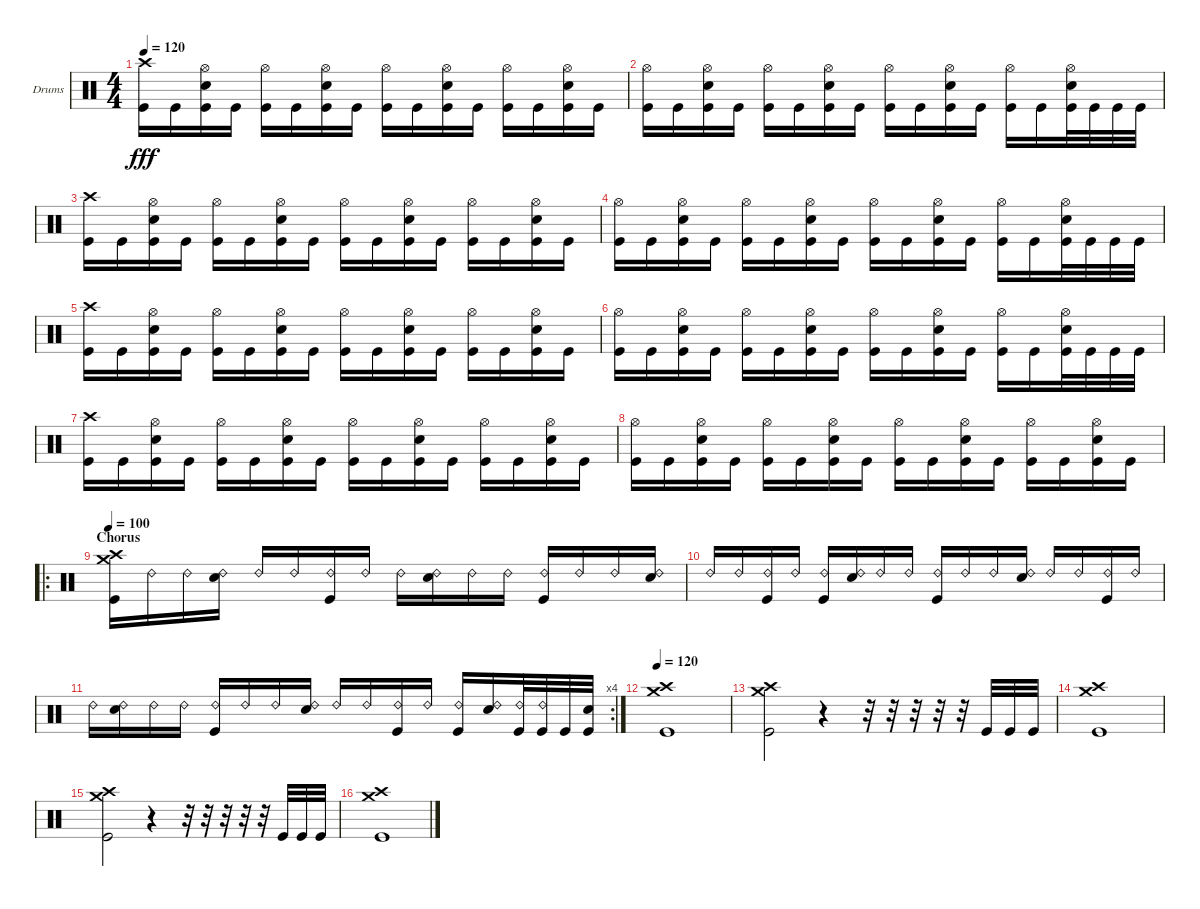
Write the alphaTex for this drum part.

\defaultSystemsLayout 4
\bracketExtendMode groupsimilarinstruments
\firstSystemTrackNameOrientation horizontal
\otherSystemsTrackNameOrientation horizontal
\track ("Jon Larsen" "Drums") {instrument percussion}
\staff {score}
\articulation defaults
\ts (4 4)
\tempo 120
\clef neutral
\scale
0.333333
\ks c
("Kick (hit)" "Crash high (hit)").16{dy fff} "Kick (hit)".16 ("Kick (hit)" "Hi-Hat (open)" "Snare (hit) 2").16 "Kick (hit)".16 ("Kick (hit)" "Hi-Hat (open)").16 "Kick (hit)".16 ("Kick (hit)" "Hi-Hat (open)" "Snare (hit) 2").16 "Kick (hit)".16 ("Kick (hit)" "Hi-Hat (open)").16 "Kick (hit)".16 ("Kick (hit)" "Hi-Hat (open)" "Snare (hit) 2").16 "Kick (hit)".16 ("Kick (hit)" "Hi-Hat (open)").16 "Kick (hit)".16 ("Kick (hit)" "Hi-Hat (open)" "Snare (hit) 2").16 "Kick (hit)".16 |
\scale
0.333333 ("Kick (hit)" "Hi-Hat (open)").16 "Kick (hit)".16 ("Kick (hit)" "Snare (hit) 2" "Hi-Hat (open)").16 "Kick (hit)".16 ("Kick (hit)" "Hi-Hat (open)").16 "Kick (hit)".16 ("Kick (hit)" "Snare (hit) 2" "Hi-Hat (open)").16 "Kick (hit)".16 ("Kick (hit)" "Hi-Hat (open)").16 "Kick (hit)".16 ("Kick (hit)" "Snare (hit) 2" "Hi-Hat (open)").16 "Kick (hit)".16 ("Kick (hit)" "Hi-Hat (open)").16 "Kick (hit)".16 ("Kick (hit)" "Snare (hit) 2" "Hi-Hat (open)").32 "Kick (hit)".32 "Kick (hit)".32 "Kick (hit)".32 |
\scale
0.333333 ("Kick (hit)" "Crash high (hit)").16 "Kick (hit)".16 ("Kick (hit)" "Hi-Hat (open)" "Snare (hit) 2").16 "Kick (hit)".16 ("Kick (hit)" "Hi-Hat (open)").16 "Kick (hit)".16 ("Kick (hit)" "Hi-Hat (open)" "Snare (hit) 2").16 "Kick (hit)".16 ("Kick (hit)" "Hi-Hat (open)").16 "Kick (hit)".16 ("Kick (hit)" "Hi-Hat (open)" "Snare (hit) 2").16 "Kick (hit)".16 ("Kick (hit)" "Hi-Hat (open)").16 "Kick (hit)".16 ("Kick (hit)" "Hi-Hat (open)" "Snare (hit) 2").16 "Kick (hit)".16 |
\scale
0.333333 ("Kick (hit)" "Hi-Hat (open)").16 "Kick (hit)".16 ("Kick (hit)" "Snare (hit) 2" "Hi-Hat (open)").16 "Kick (hit)".16 ("Kick (hit)" "Hi-Hat (open)").16 "Kick (hit)".16 ("Kick (hit)" "Snare (hit) 2" "Hi-Hat (open)").16 "Kick (hit)".16 ("Kick (hit)" "Hi-Hat (open)").16 "Kick (hit)".16 ("Kick (hit)" "Snare (hit) 2" "Hi-Hat (open)").16 "Kick (hit)".16 ("Kick (hit)" "Hi-Hat (open)").16 "Kick (hit)".16 ("Kick (hit)" "Snare (hit) 2" "Hi-Hat (open)").32 "Kick (hit)".32 "Kick (hit)".32 "Kick (hit)".32 |
\scale
0.333333 ("Kick (hit)" "Crash high (hit)").16 "Kick (hit)".16 ("Kick (hit)" "Hi-Hat (open)" "Snare (hit) 2").16 "Kick (hit)".16 ("Kick (hit)" "Hi-Hat (open)").16 "Kick (hit)".16 ("Kick (hit)" "Hi-Hat (open)" "Snare (hit) 2").16 "Kick (hit)".16 ("Kick (hit)" "Hi-Hat (open)").16 "Kick (hit)".16 ("Kick (hit)" "Hi-Hat (open)" "Snare (hit) 2").16 "Kick (hit)".16 ("Kick (hit)" "Hi-Hat (open)").16 "Kick (hit)".16 ("Kick (hit)" "Hi-Hat (open)" "Snare (hit) 2").16 "Kick (hit)".16 |
\scale
0.333333 ("Kick (hit)" "Hi-Hat (open)").16 "Kick (hit)".16 ("Kick (hit)" "Snare (hit) 2" "Hi-Hat (open)").16 "Kick (hit)".16 ("Kick (hit)" "Hi-Hat (open)").16 "Kick (hit)".16 ("Kick (hit)" "Snare (hit) 2" "Hi-Hat (open)").16 "Kick (hit)".16 ("Kick (hit)" "Hi-Hat (open)").16 "Kick (hit)".16 ("Kick (hit)" "Snare (hit) 2" "Hi-Hat (open)").16 "Kick (hit)".16 ("Kick (hit)" "Hi-Hat (open)").16 "Kick (hit)".16 ("Kick (hit)" "Snare (hit) 2" "Hi-Hat (open)").32 "Kick (hit)".32 "Kick (hit)".32 "Kick (hit)".32 |
\scale
0.333333 ("Kick (hit)" "Crash high (hit)").16 "Kick (hit)".16 ("Kick (hit)" "Hi-Hat (open)" "Snare (hit) 2").16 "Kick (hit)".16 ("Kick (hit)" "Hi-Hat (open)").16 "Kick (hit)".16 ("Kick (hit)" "Hi-Hat (open)" "Snare (hit) 2").16 "Kick (hit)".16 ("Kick (hit)" "Hi-Hat (open)").16 "Kick (hit)".16 ("Kick (hit)" "Hi-Hat (open)" "Snare (hit) 2").16 "Kick (hit)".16 ("Kick (hit)" "Hi-Hat (open)").16 "Kick (hit)".16 ("Kick (hit)" "Hi-Hat (open)" "Snare (hit) 2").16 "Kick (hit)".16 |
\scale
0.333333 ("Kick (hit)" "Hi-Hat (open)").16 "Kick (hit)".16 ("Kick (hit)" "Snare (hit) 2" "Hi-Hat (open)").16 "Kick (hit)".16 ("Kick (hit)" "Hi-Hat (open)").16 "Kick (hit)".16 ("Kick (hit)" "Snare (hit) 2" "Hi-Hat (open)").16 "Kick (hit)".16 ("Kick (hit)" "Hi-Hat (open)").16 "Kick (hit)".16 ("Kick (hit)" "Snare (hit) 2" "Hi-Hat (open)").16 "Kick (hit)".16 ("Kick (hit)" "Hi-Hat (open)").16 "Kick (hit)".16 ("Kick (hit)" "Snare (hit) 2" "Hi-Hat (open)").16 "Kick (hit)".16 |
\ro
\section ("" "Chorus")
\tempo 100
\scale
0.365591 ("Crash medium (hit)" "Crash high (hit)" "Kick (hit)").16 "Ride (bell) 2".16 "Ride (bell) 2".16 ("Ride (bell) 2" "Snare (hit) 2").16 "Ride (bell) 2".16 "Ride (bell) 2".16 ("Ride (bell) 2" "Kick (hit)").16 "Ride (bell) 2".16 "Ride (bell) 2".16 ("Ride (bell) 2" "Snare (hit) 2").16 "Ride (bell) 2".16 "Ride (bell) 2".16 ("Ride (bell) 2" "Kick (hit)").16 "Ride (bell) 2".16 "Ride (bell) 2".16 ("Ride (bell) 2" "Snare (hit) 2").16 |
\scale
0.301075 "Ride (bell) 2".16 "Ride (bell) 2".16 ("Ride (bell) 2" "Kick (hit)").16 "Ride (bell) 2".16 ("Ride (bell) 2" "Kick (hit)").16 ("Ride (bell) 2" "Snare (hit) 2").16 "Ride (bell) 2".16 "Ride (bell) 2".16 ("Ride (bell) 2" "Kick (hit)").16 "Ride (bell) 2".16 "Ride (bell) 2".16 ("Ride (bell) 2" "Snare (hit) 2").16 "Ride (bell) 2".16 "Ride (bell) 2".16 ("Ride (bell) 2" "Kick (hit)").16 "Ride (bell) 2".16 |
\rc 4
\scale
0.333333 "Ride (bell) 2".16 ("Ride (bell) 2" "Snare (hit) 2").16 "Ride (bell) 2".16 "Ride (bell) 2".16 ("Ride (bell) 2" "Kick (hit)").16 "Ride (bell) 2".16 "Ride (bell) 2".16 ("Ride (bell) 2" "Snare (hit) 2").16 "Ride (bell) 2".16 "Ride (bell) 2".16 ("Ride (bell) 2" "Kick (hit)").16 "Ride (bell) 2".16 ("Ride (bell) 2" "Kick (hit)").16 ("Ride (bell) 2" "Snare (hit) 2").16 ("Ride (bell) 2" "Kick (hit)").32 ("Ride (bell) 2" "Kick (hit)").32 "Kick (hit)".32 ("Kick (hit)" "Snare (hit) 2").32 |
\tempo 120
\scale
0.333333 ("Kick (hit)" "Crash medium (hit)" "Crash high (hit)").1 |
\scale
0.333333 ("Kick (hit)" "Crash medium (hit)" "Crash high (hit)").2 r.4 r.32 r.32 r.32 r.32 r.32 "Kick (hit)".32 "Kick (hit)".32 "Kick (hit)".32 |
\scale
0.333333 ("Kick (hit)" "Crash medium (hit)" "Crash high (hit)").1 |
\scale
0.311111 ("Kick (hit)" "Crash medium (hit)" "Crash high (hit)").2 r.4 r.32 r.32 r.32 r.32 r.32 "Kick (hit)".32 "Kick (hit)".32 "Kick (hit)".32 |
\scale
0.311111 ("Kick (hit)" "Crash medium (hit)" "Crash high (hit)").1
